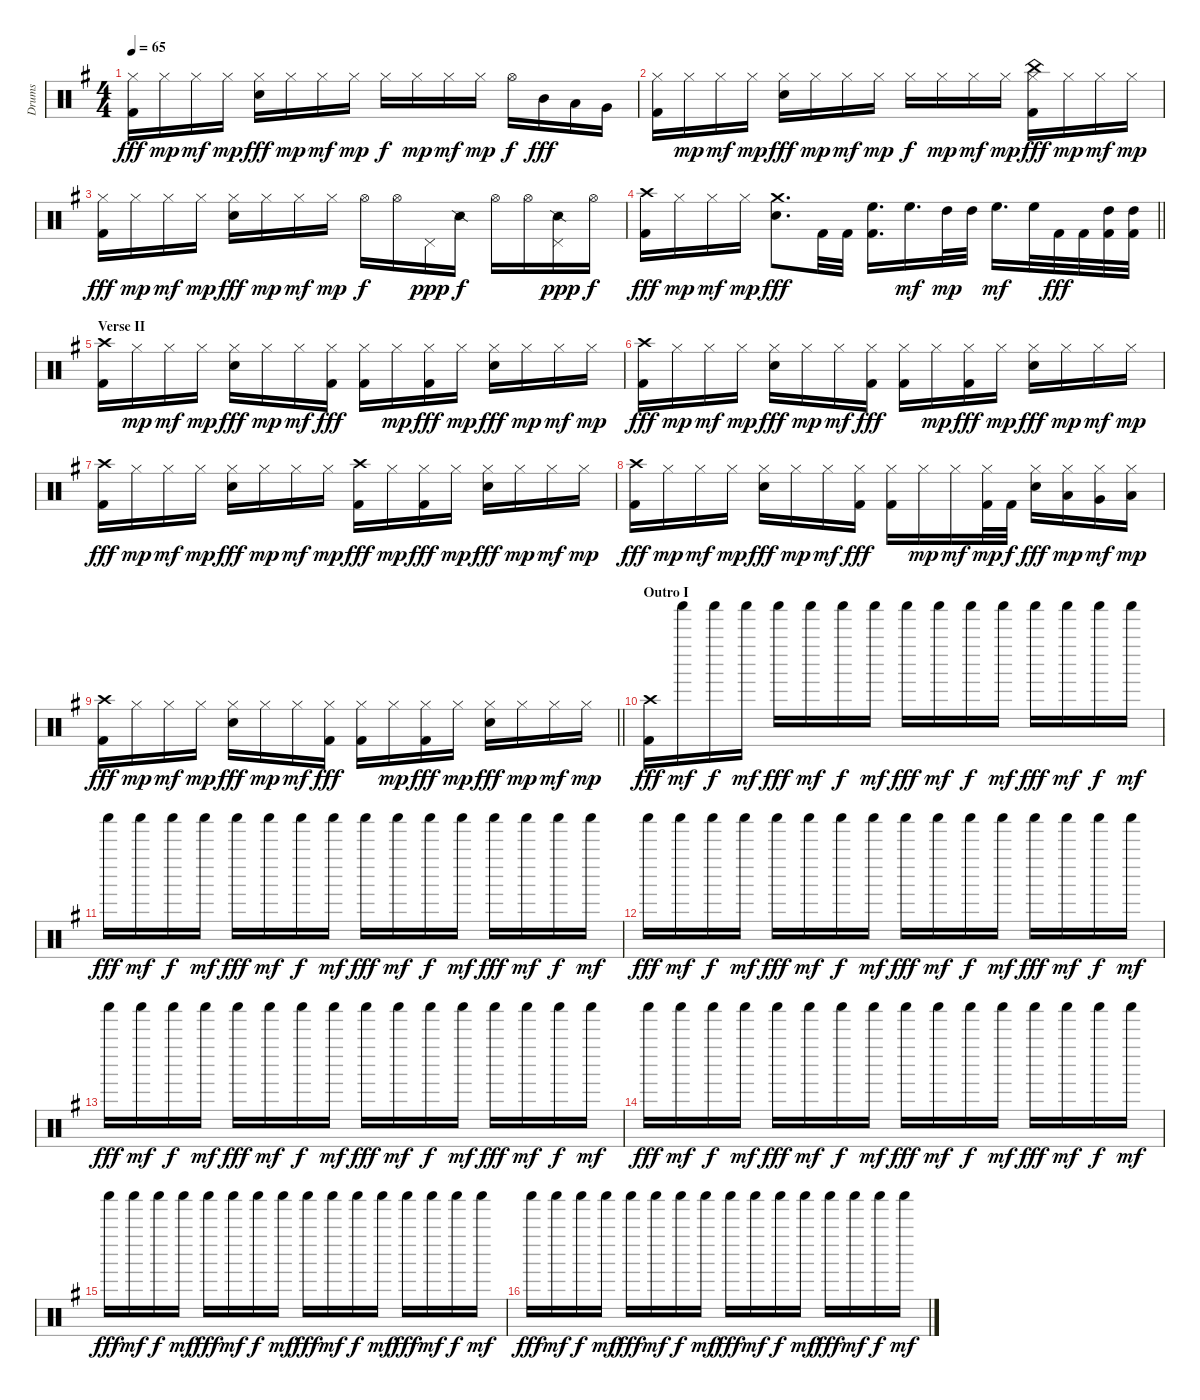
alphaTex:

\track ("Drums" "Drums") {instrument percussion}
\staff {score}
\articulation defaults
\ts (4 4)
\tempo 65
\clef neutral
\ks eminor
("Hi-Hat (closed)" "Kick (hit) 2").16{dy fff} "Hi-Hat (closed)".16{dy mp} "Hi-Hat (closed)".16{dy mf} "Hi-Hat (closed)".16{dy mp} ("Hi-Hat (closed)" "Snare (hit) 2").16{dy fff} "Hi-Hat (closed)".16{dy mp} "Hi-Hat (closed)".16{dy mf} "Hi-Hat (closed)".16{dy mp} "Hi-Hat (closed)".16{dy f} "Hi-Hat (closed)".16{dy mp} "Hi-Hat (closed)".16{dy mf} "Hi-Hat (closed)".16{dy mp} "Hi-Hat (open)".16{dy f} "Mid Tom (hit)".16{dy fff} "Low Tom (hit)".16 "Very Low Tom (hit)".16 |
("Hi-Hat (closed)" "Kick (hit) 2").16 "Hi-Hat (closed)".16{dy mp} "Hi-Hat (closed)".16{dy mf} "Hi-Hat (closed)".16{dy mp} ("Hi-Hat (closed)" "Snare (hit) 2").16{dy fff} "Hi-Hat (closed)".16{dy mp} "Hi-Hat (closed)".16{dy mf} "Hi-Hat (closed)".16{dy mp} "Hi-Hat (closed)".16{dy f} "Hi-Hat (closed)".16{dy mp} "Hi-Hat (closed)".16{dy mf} "Hi-Hat (closed)".16{dy mp} ("Hi-Hat (closed)" "China (hit)" "Kick (hit) 2").16{dy fff} "Hi-Hat (closed)".16{dy mp} "Hi-Hat (closed)".16{dy mf} "Hi-Hat (closed)".16{dy mp} |
("Hi-Hat (closed)" "Kick (hit) 2").16{dy fff} "Hi-Hat (closed)".16{dy mp} "Hi-Hat (closed)".16{dy mf} "Hi-Hat (closed)".16{dy mp} ("Hi-Hat (closed)" "Snare (hit) 2").16{dy fff} "Hi-Hat (closed)".16{dy mp} "Hi-Hat (closed)".16{dy mf} "Hi-Hat (closed)".16{dy mp} "Hi-Hat (open)".16{dy f} "Hi-Hat (open)".16 "Pedal Hi-Hat (hit)".16{dy ppp} "Snare (side stick) 2".16{dy f} "Hi-Hat (open)".16 "Hi-Hat (open)".16 ("Pedal Hi-Hat (hit)" "Snare (side stick) 2").16{dy ppp} "Hi-Hat (open)".16{dy f} |
\barLineRight lightlight
("Crash high (hit)" "Kick (hit) 2").16{dy fff} "Hi-Hat (closed)".16{dy mp} "Hi-Hat (closed)".16{dy mf} "Hi-Hat (closed)".16{dy mp} ("Crash medium (hit)" "Snare (hit) 2").8{d dy fff} "Kick (hit) 2".32 "Kick (hit) 2".32 ("High Floor Tom (hit)" "Kick (hit) 2").16{d} "High Floor Tom (hit)".16{d dy mf} "High Tom (hit)".32{dy mp} "High Tom (hit)".32 "High Floor Tom (hit)".16{d dy mf} "High Floor Tom (hit)".32 "Kick (hit) 2".32{dy fff} "Kick (hit) 2".32 ("High Tom (hit)" "Kick (hit) 2").32 ("High Tom (hit)" "Kick (hit) 2").32 |
\section ("" "Verse II")
("Crash high (hit)" "Kick (hit) 2").16 "Hi-Hat (closed)".16{dy mp} "Hi-Hat (closed)".16{dy mf} "Hi-Hat (closed)".16{dy mp} ("Hi-Hat (closed)" "Snare (hit) 2").16{dy fff} "Hi-Hat (closed)".16{dy mp} "Hi-Hat (closed)".16{dy mf} ("Hi-Hat (closed)" "Kick (hit) 2").16{dy fff} ("Hi-Hat (closed)" "Kick (hit) 2").16 "Hi-Hat (closed)".16{dy mp} ("Hi-Hat (closed)" "Kick (hit) 2").16{dy fff} "Hi-Hat (closed)".16{dy mp} ("Hi-Hat (closed)" "Snare (hit) 2").16{dy fff} "Hi-Hat (closed)".16{dy mp} "Hi-Hat (closed)".16{dy mf} "Hi-Hat (closed)".16{dy mp} |
("Crash high (hit)" "Kick (hit) 2").16{dy fff} "Hi-Hat (closed)".16{dy mp} "Hi-Hat (closed)".16{dy mf} "Hi-Hat (closed)".16{dy mp} ("Hi-Hat (closed)" "Snare (hit) 2").16{dy fff} "Hi-Hat (closed)".16{dy mp} "Hi-Hat (closed)".16{dy mf} ("Hi-Hat (closed)" "Kick (hit) 2").16{dy fff} ("Hi-Hat (closed)" "Kick (hit) 2").16 "Hi-Hat (closed)".16{dy mp} ("Hi-Hat (closed)" "Kick (hit) 2").16{dy fff} "Hi-Hat (closed)".16{dy mp} ("Hi-Hat (closed)" "Snare (hit) 2").16{dy fff} "Hi-Hat (closed)".16{dy mp} "Hi-Hat (closed)".16{dy mf} "Hi-Hat (closed)".16{dy mp} |
("Crash high (hit)" "Kick (hit) 2").16{dy fff} "Hi-Hat (closed)".16{dy mp} "Hi-Hat (closed)".16{dy mf} "Hi-Hat (closed)".16{dy mp} ("Hi-Hat (closed)" "Snare (hit) 2").16{dy fff} "Hi-Hat (closed)".16{dy mp} "Hi-Hat (closed)".16{dy mf} "Hi-Hat (closed)".16{dy mp} ("Crash high (hit)" "Kick (hit) 2").16{dy fff} "Hi-Hat (closed)".16{dy mp} ("Hi-Hat (closed)" "Kick (hit) 2").16{dy fff} "Hi-Hat (closed)".16{dy mp} ("Hi-Hat (closed)" "Snare (hit) 2").16{dy fff} "Hi-Hat (closed)".16{dy mp} "Hi-Hat (closed)".16{dy mf} "Hi-Hat (closed)".16{dy mp} |
("Crash high (hit)" "Kick (hit) 2").16{dy fff} "Hi-Hat (closed)".16{dy mp} "Hi-Hat (closed)".16{dy mf} "Hi-Hat (closed)".16{dy mp} ("Hi-Hat (closed)" "Snare (hit) 2").16{dy fff} "Hi-Hat (closed)".16{dy mp} "Hi-Hat (closed)".16{dy mf} ("Hi-Hat (closed)" "Kick (hit) 2").16{dy fff} ("Hi-Hat (closed)" "Kick (hit) 2").16 "Hi-Hat (closed)".16{dy mp} "Hi-Hat (closed)".16{dy mf} ("Hi-Hat (closed)" "Kick (hit) 2").32{dy mp} "Kick (hit) 2".32{dy f} ("Hi-Hat (closed)" "Snare (hit) 2").16{dy fff} ("Hi-Hat (closed)" "Low Tom (hit)").16{dy mp} ("Hi-Hat (closed)" "Very Low Tom (hit)").16{dy mf} ("Hi-Hat (closed)" "Low Tom (hit)").16{dy mp} |
\barLineRight lightlight
("Crash high (hit)" "Kick (hit) 2").16{dy fff} "Hi-Hat (closed)".16{dy mp} "Hi-Hat (closed)".16{dy mf} "Hi-Hat (closed)".16{dy mp} ("Hi-Hat (closed)" "Snare (hit) 2").16{dy fff} "Hi-Hat (closed)".16{dy mp} "Hi-Hat (closed)".16{dy mf} ("Hi-Hat (closed)" "Kick (hit) 2").16{dy fff} ("Hi-Hat (closed)" "Kick (hit) 2").16 "Hi-Hat (closed)".16{dy mp} ("Hi-Hat (closed)" "Kick (hit) 2").16{dy fff} "Hi-Hat (closed)".16{dy mp} ("Hi-Hat (closed)" "Snare (hit) 2").16{dy fff} "Hi-Hat (closed)".16{dy mp} "Hi-Hat (closed)".16{dy mf} "Hi-Hat (closed)".16{dy mp} |
\section ("" "Outro I")
("Crash high (hit)" "Kick (hit) 2").16{dy fff} "Shaker (hit)".16{dy mf} "Shaker (hit)".16{dy f} "Shaker (hit)".16{dy mf} "Shaker (hit)".16{dy fff} "Shaker (hit)".16{dy mf} "Shaker (hit)".16{dy f} "Shaker (hit)".16{dy mf} "Shaker (hit)".16{dy fff} "Shaker (hit)".16{dy mf} "Shaker (hit)".16{dy f} "Shaker (hit)".16{dy mf} "Shaker (hit)".16{dy fff} "Shaker (hit)".16{dy mf} "Shaker (hit)".16{dy f} "Shaker (hit)".16{dy mf} |
"Shaker (hit)".16{dy fff} "Shaker (hit)".16{dy mf} "Shaker (hit)".16{dy f} "Shaker (hit)".16{dy mf} "Shaker (hit)".16{dy fff} "Shaker (hit)".16{dy mf} "Shaker (hit)".16{dy f} "Shaker (hit)".16{dy mf} "Shaker (hit)".16{dy fff} "Shaker (hit)".16{dy mf} "Shaker (hit)".16{dy f} "Shaker (hit)".16{dy mf} "Shaker (hit)".16{dy fff} "Shaker (hit)".16{dy mf} "Shaker (hit)".16{dy f} "Shaker (hit)".16{dy mf} |
"Shaker (hit)".16{dy fff} "Shaker (hit)".16{dy mf} "Shaker (hit)".16{dy f} "Shaker (hit)".16{dy mf} "Shaker (hit)".16{dy fff} "Shaker (hit)".16{dy mf} "Shaker (hit)".16{dy f} "Shaker (hit)".16{dy mf} "Shaker (hit)".16{dy fff} "Shaker (hit)".16{dy mf} "Shaker (hit)".16{dy f} "Shaker (hit)".16{dy mf} "Shaker (hit)".16{dy fff} "Shaker (hit)".16{dy mf} "Shaker (hit)".16{dy f} "Shaker (hit)".16{dy mf} |
"Shaker (hit)".16{dy fff} "Shaker (hit)".16{dy mf} "Shaker (hit)".16{dy f} "Shaker (hit)".16{dy mf} "Shaker (hit)".16{dy fff} "Shaker (hit)".16{dy mf} "Shaker (hit)".16{dy f} "Shaker (hit)".16{dy mf} "Shaker (hit)".16{dy fff} "Shaker (hit)".16{dy mf} "Shaker (hit)".16{dy f} "Shaker (hit)".16{dy mf} "Shaker (hit)".16{dy fff} "Shaker (hit)".16{dy mf} "Shaker (hit)".16{dy f} "Shaker (hit)".16{dy mf} |
"Shaker (hit)".16{dy fff} "Shaker (hit)".16{dy mf} "Shaker (hit)".16{dy f} "Shaker (hit)".16{dy mf} "Shaker (hit)".16{dy fff} "Shaker (hit)".16{dy mf} "Shaker (hit)".16{dy f} "Shaker (hit)".16{dy mf} "Shaker (hit)".16{dy fff} "Shaker (hit)".16{dy mf} "Shaker (hit)".16{dy f} "Shaker (hit)".16{dy mf} "Shaker (hit)".16{dy fff} "Shaker (hit)".16{dy mf} "Shaker (hit)".16{dy f} "Shaker (hit)".16{dy mf} |
"Shaker (hit)".16{dy fff} "Shaker (hit)".16{dy mf} "Shaker (hit)".16{dy f} "Shaker (hit)".16{dy mf} "Shaker (hit)".16{dy fff} "Shaker (hit)".16{dy mf} "Shaker (hit)".16{dy f} "Shaker (hit)".16{dy mf} "Shaker (hit)".16{dy fff} "Shaker (hit)".16{dy mf} "Shaker (hit)".16{dy f} "Shaker (hit)".16{dy mf} "Shaker (hit)".16{dy fff} "Shaker (hit)".16{dy mf} "Shaker (hit)".16{dy f} "Shaker (hit)".16{dy mf} |
"Shaker (hit)".16{dy fff} "Shaker (hit)".16{dy mf} "Shaker (hit)".16{dy f} "Shaker (hit)".16{dy mf} "Shaker (hit)".16{dy fff} "Shaker (hit)".16{dy mf} "Shaker (hit)".16{dy f} "Shaker (hit)".16{dy mf} "Shaker (hit)".16{dy fff} "Shaker (hit)".16{dy mf} "Shaker (hit)".16{dy f} "Shaker (hit)".16{dy mf} "Shaker (hit)".16{dy fff} "Shaker (hit)".16{dy mf} "Shaker (hit)".16{dy f} "Shaker (hit)".16{dy mf}
